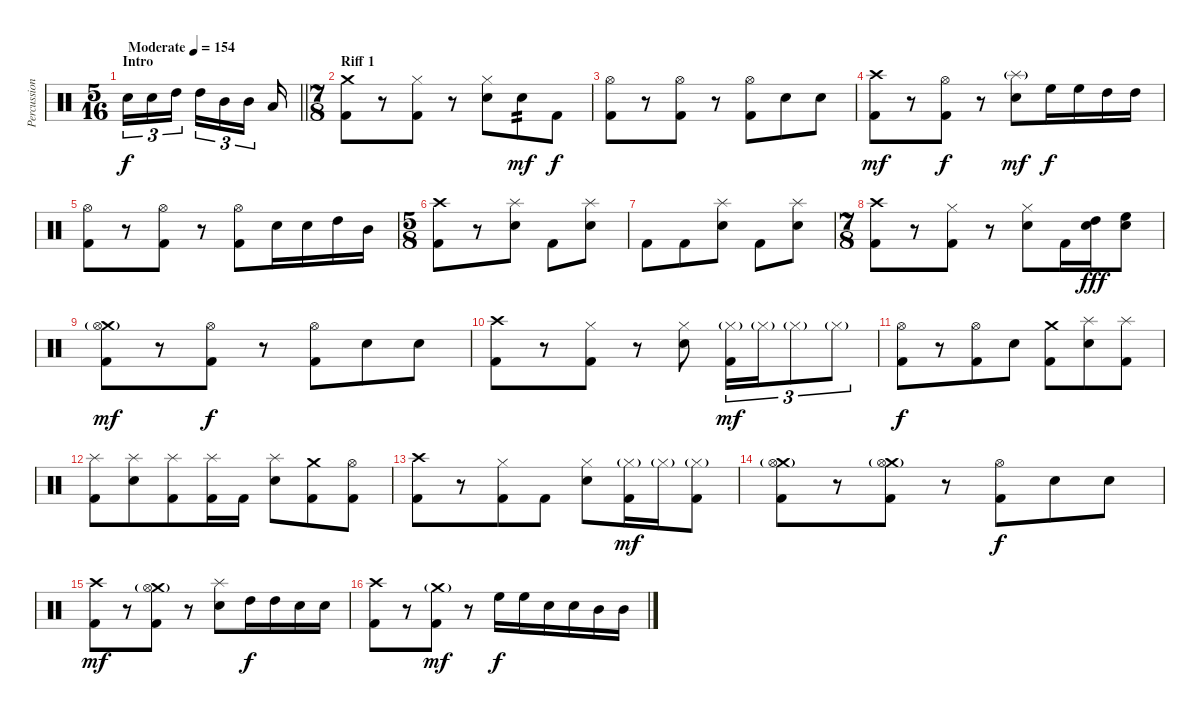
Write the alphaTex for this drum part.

\track ("Percussions" "Percussion") {instrument percussion}
\staff {score}
\articulation defaults
\ts (5 16)
\section ("" "Intro")
\tempo (154 "Moderate")
\clef neutral
\barLineRight lightlight
\ks c "Electric Snare (hit)".16{tu (3 2) dy f} "Electric Snare (hit)".16{tu (3 2)} "High Tom (hit)".16{tu (3 2)} "High Tom (hit)".16{tu (3 2)} "Mid Tom (hit)".16{tu (3 2)} "Mid Tom (hit)".16{tu (3 2)} "Low Tom (hit)".16
|
\ts (7 8)
\section ("" "Riff 1")
("Crash medium (hit)" "Kick (hit) 2").8 r.8 ("Hi-Hat (closed)" "Kick (hit) 2").8 r.8 ("Hi-Hat (closed)" "Electric Snare (hit)").8 "Electric Snare (hit)".8{tp 2 dy mf} "Kick (hit) 2".8{dy f} |
("Hi-Hat (open)" "Kick (hit) 2").8 r.8 ("Hi-Hat (open)" "Kick (hit) 2").8 r.8 ("Hi-Hat (open)" "Kick (hit) 2").8 "Electric Snare (hit)".8 "Electric Snare (hit)".8 |
("Crash high (hit)" "Kick (hit) 2").8{dy mf} r.8 ("Hi-Hat (open)" "Kick (hit) 2").8{dy f} r.8 ("Splash (hit)"{g} "Electric Snare (hit)").8{dy mf} "High Floor Tom (hit)".16{dy f} "High Floor Tom (hit)".16 "High Tom (hit)".16 "High Tom (hit)".16 |
("Hi-Hat (open)" "Kick (hit) 2").8 r.8 ("Hi-Hat (open)" "Kick (hit) 2").8 r.8 ("Hi-Hat (open)" "Kick (hit) 2").8 "Electric Snare (hit)".16 "Electric Snare (hit)".16 "High Tom (hit)".16 "Mid Tom (hit)".16 |
\ts (5 8)
("Crash high (hit)" "Kick (hit) 2").8 r.8 ("Splash (hit)" "Electric Snare (hit)").8 "Kick (hit) 2".8 ("Splash (hit)" "Electric Snare (hit)").8 |
"Kick (hit) 2".8 "Kick (hit) 2".8 ("Splash (hit)" "Electric Snare (hit)").8 "Kick (hit) 2".8 ("Splash (hit)" "Electric Snare (hit)").8 |
\ts (7 8)
("Crash high (hit)" "Kick (hit) 2").8 r.8 ("Hi-Hat (closed)" "Kick (hit) 2").8 r.8 ("Hi-Hat (closed)" "Electric Snare (hit)").8 "Kick (hit) 2".16 ("Electric Snare (hit)" "High Tom (hit)").16{dy fff} ("Electric Snare (hit)" "High Floor Tom (hit)").8 |
("Crash medium (hit)"{g} "Hi-Hat (open)" "Kick (hit) 2").8{dy mf} r.8 ("Hi-Hat (open)" "Kick (hit) 2").8{dy f} r.8 ("Hi-Hat (open)" "Kick (hit) 2").8 "Electric Snare (hit)".8 "Electric Snare (hit)".8 |
("Crash high (hit)" "Kick (hit) 2").8 r.8 ("Hi-Hat (closed)" "Kick (hit) 2").8 r.8 ("Hi-Hat (closed)" "Electric Snare (hit)").8 ("Hi-Hat (closed)"{g} "Kick (hit) 2").16{tu (3 2) dy mf} "Hi-Hat (closed)"{g}.16{tu (3 2)} "Hi-Hat (closed)"{g}.8{tu (3 2)} "Hi-Hat (closed)"{g}.8{tu (3 2)} |
("Hi-Hat (open)" "Kick (hit) 2").8{dy f} r.8 ("Hi-Hat (open)" "Kick (hit) 2").8 "Electric Snare (hit)".8 ("Crash medium (hit)" "Kick (hit) 2").8 ("Splash (hit)" "Electric Snare (hit)").8 ("Splash (hit)" "Kick (hit) 2").8 |
("Splash (hit)" "Kick (hit) 2").8 ("Splash (hit)" "Electric Snare (hit)").8 ("Splash (hit)" "Kick (hit) 2").8 ("Splash (hit)" "Kick (hit) 2").16 "Kick (hit) 2".16 ("Splash (hit)" "Electric Snare (hit)").8 ("Crash medium (hit)" "Kick (hit) 2").8 ("Hi-Hat (open)" "Kick (hit) 2").8 |
("Crash high (hit)" "Kick (hit) 2").8 r.8 ("Hi-Hat (closed)" "Kick (hit) 2").8 "Kick (hit) 2".8 ("Hi-Hat (closed)" "Electric Snare (hit)").8 ("Hi-Hat (closed)"{g} "Kick (hit) 2").16{dy mf} "Hi-Hat (closed)"{g}.16 ("Hi-Hat (closed)"{g} "Kick (hit) 2").8 |
("Crash medium (hit)"{g} "Hi-Hat (open)" "Kick (hit) 2").8 r.8 ("Crash medium (hit)"{g} "Hi-Hat (open)" "Kick (hit) 2").8 r.8 ("Hi-Hat (open)" "Kick (hit) 2").8{dy f} "Electric Snare (hit)".8 "Electric Snare (hit)".8 |
("Crash high (hit)" "Kick (hit) 2").8{dy mf} r.8 ("Crash medium (hit)"{g} "Hi-Hat (open)" "Kick (hit) 2").8 r.8 ("Splash (hit)" "Electric Snare (hit)").8 "High Tom (hit)".16{dy f} "High Tom (hit)".16 "Electric Snare (hit)".16 "Electric Snare (hit)".16 |
("Crash high (hit)" "Kick (hit) 2").8 r.8 ("Crash medium (hit)"{g} "Kick (hit) 2").8{dy mf} r.8 "High Floor Tom (hit)".16{dy f} "High Floor Tom (hit)".16 "Electric Snare (hit)".16 "Electric Snare (hit)".16 "Mid Tom (hit)".16 "Mid Tom (hit)".16
